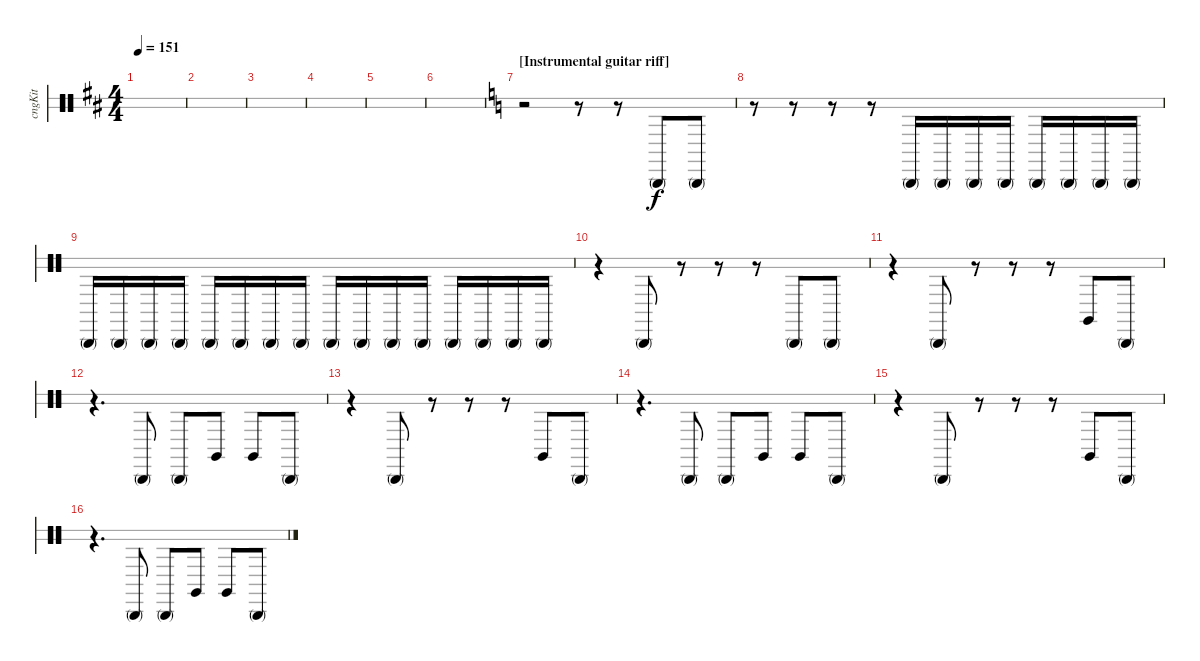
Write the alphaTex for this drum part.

\bracketExtendMode groupsimilarinstruments
\track ("Congas" "cngKit") {instrument percussion}
\staff {score 2}
\articulation defaults
\ts (4 4)
\tempo 151
\clef neutral
\ks d
|
|
|
|
|
|
\section ("" "[Instrumental guitar riff]")
\ks aminor
r.2 r.8 r.8 "Conga high (mute)".8 "Conga high (mute)".8 |
r.8 r.8 r.8 r.8 "Conga high (mute)".16 "Conga high (mute)".16 "Conga high (mute)".16 "Conga high (mute)".16 "Conga high (mute)".16 "Conga high (mute)".16 "Conga high (mute)".16 "Conga high (mute)".16 |
"Conga high (mute)".16 "Conga high (mute)".16 "Conga high (mute)".16 "Conga high (mute)".16 "Conga high (mute)".16 "Conga high (mute)".16 "Conga high (mute)".16 "Conga high (mute)".16 "Conga high (mute)".16 "Conga high (mute)".16 "Conga high (mute)".16 "Conga high (mute)".16 "Conga high (mute)".16 "Conga high (mute)".16 "Conga high (mute)".16 "Conga high (mute)".16 |
r.4 "Conga high (mute)".8 r.8 r.8 r.8 "Conga high (mute)".8 "Conga high (mute)".8 |
r.4 "Conga high (mute)".8 r.8 r.8 r.8 "Conga high (hit)".8 "Conga high (mute)".8 |
r.4{d} "Conga high (mute)".8 "Conga high (mute)".8 "Conga high (hit)".8 "Conga high (hit)".8 "Conga high (mute)".8 |
r.4 "Conga high (mute)".8 r.8 r.8 r.8 "Conga high (hit)".8 "Conga high (mute)".8 |
r.4{d} "Conga high (mute)".8 "Conga high (mute)".8 "Conga high (hit)".8 "Conga high (hit)".8 "Conga high (mute)".8 |
r.4 "Conga high (mute)".8 r.8 r.8 r.8 "Conga high (hit)".8 "Conga high (mute)".8 |
r.4{d} "Conga high (mute)".8 "Conga high (mute)".8 "Conga high (hit)".8 "Conga high (hit)".8 "Conga high (mute)".8
